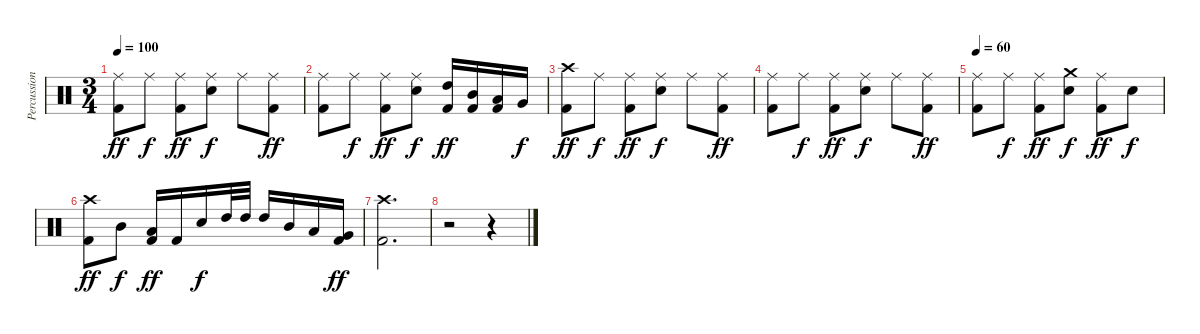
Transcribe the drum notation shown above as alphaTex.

\track ("Percussion" "Percussion") {instrument percussion}
\staff {score}
\articulation defaults
\ts (3 4)
\tempo 100
\clef neutral
\ks c
("Ride (middle)" "Kick (hit) 2").8{dy ff} "Ride (middle)".8{dy f} ("Ride (middle)" "Kick (hit) 2").8{dy ff} ("Ride (middle)" "Snare (hit) 2").8{dy f} "Ride (middle)".8 ("Ride (middle)" "Kick (hit) 2").8{dy ff} |
("Ride (middle)" "Kick (hit) 2").8 "Ride (middle)".8{dy f} ("Ride (middle)" "Kick (hit) 2").8{dy ff} ("Ride (middle)" "Snare (hit) 2").8{dy f} ("High Tom (hit)" "Kick (hit) 2").16{dy ff} ("Mid Tom (hit)" "Kick (hit) 2").16 ("Low Tom (hit)" "Kick (hit) 2").16 "Very Low Tom (hit)".16{dy f} |
("Crash high (hit)" "Kick (hit) 2").8{dy ff} "Ride (middle)".8{dy f} ("Ride (middle)" "Kick (hit) 2").8{dy ff} ("Ride (middle)" "Snare (hit) 2").8{dy f} "Ride (middle)".8 ("Ride (middle)" "Kick (hit) 2").8{dy ff} |
("Ride (middle)" "Kick (hit) 2").8 "Ride (middle)".8{dy f} ("Ride (middle)" "Kick (hit) 2").8{dy ff} ("Ride (middle)" "Snare (hit) 2").8{dy f} "Ride (middle)".8 ("Ride (middle)" "Kick (hit) 2").8{dy ff} |
\tempo 60
("Ride (middle)" "Kick (hit) 2").8 "Ride (middle)".8{dy f} ("Ride (middle)" "Kick (hit) 2").8{dy ff} ("Crash medium (hit)" "Snare (hit) 2").8{dy f} ("Ride (middle)" "Kick (hit) 2").8{dy ff} "Snare (hit) 2".8{dy f} |
("Crash high (hit)" "Kick (hit) 2").8{dy ff} "Mid Tom (hit)".8{dy f} ("Low Tom (hit)" "Kick (hit) 2").16{dy ff} "Kick (hit) 2".16 "Snare (hit) 2".16{dy f} "High Tom (hit)".32 "High Tom (hit)".32 "High Tom (hit)".16 "Mid Tom (hit)".16 "Low Tom (hit)".16 ("Very Low Tom (hit)" "Kick (hit) 2").16{dy ff} |
("Crash high (hit)" "Kick (hit) 2").2{d} |
r.2 r.4
